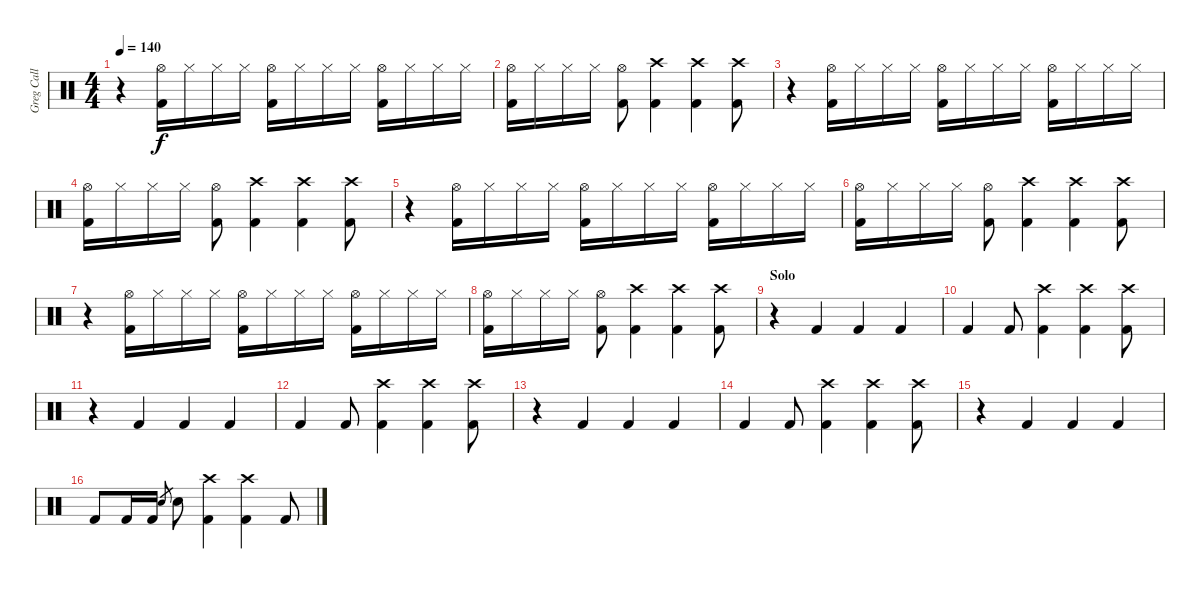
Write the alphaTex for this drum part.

\track ("Greg Call (Drums)" "Greg Call ") {instrument percussion}
\staff {score}
\articulation defaults
\ts (4 4)
\tempo 140
\clef neutral
\ks c
r.4{dy f} ("Hi-Hat (open)" "Kick (hit) 2").16 "Hi-Hat (closed)".16 "Hi-Hat (closed)".16 "Hi-Hat (closed)".16 ("Hi-Hat (open)" "Kick (hit) 2").16 "Hi-Hat (closed)".16 "Hi-Hat (closed)".16 "Hi-Hat (closed)".16 ("Hi-Hat (open)" "Kick (hit) 2").16 "Hi-Hat (closed)".16 "Hi-Hat (closed)".16 "Hi-Hat (closed)".16 |
("Hi-Hat (open)" "Kick (hit) 2").16 "Hi-Hat (closed)".16 "Hi-Hat (closed)".16 "Hi-Hat (closed)".16 ("Hi-Hat (open)" "Kick (hit) 2").8 ("Crash high (hit)" "Kick (hit) 2").4 ("Crash high (hit)" "Kick (hit) 2").4 ("Crash high (hit)" "Kick (hit) 2").8 |
r.4 ("Hi-Hat (open)" "Kick (hit) 2").16 "Hi-Hat (closed)".16 "Hi-Hat (closed)".16 "Hi-Hat (closed)".16 ("Hi-Hat (open)" "Kick (hit) 2").16 "Hi-Hat (closed)".16 "Hi-Hat (closed)".16 "Hi-Hat (closed)".16 ("Hi-Hat (open)" "Kick (hit) 2").16 "Hi-Hat (closed)".16 "Hi-Hat (closed)".16 "Hi-Hat (closed)".16 |
("Hi-Hat (open)" "Kick (hit) 2").16 "Hi-Hat (closed)".16 "Hi-Hat (closed)".16 "Hi-Hat (closed)".16 ("Hi-Hat (open)" "Kick (hit) 2").8 ("Crash high (hit)" "Kick (hit) 2").4 ("Crash high (hit)" "Kick (hit) 2").4 ("Crash high (hit)" "Kick (hit) 2").8 |
r.4 ("Hi-Hat (open)" "Kick (hit) 2").16 "Hi-Hat (closed)".16 "Hi-Hat (closed)".16 "Hi-Hat (closed)".16 ("Hi-Hat (open)" "Kick (hit) 2").16 "Hi-Hat (closed)".16 "Hi-Hat (closed)".16 "Hi-Hat (closed)".16 ("Hi-Hat (open)" "Kick (hit) 2").16 "Hi-Hat (closed)".16 "Hi-Hat (closed)".16 "Hi-Hat (closed)".16 |
("Hi-Hat (open)" "Kick (hit) 2").16 "Hi-Hat (closed)".16 "Hi-Hat (closed)".16 "Hi-Hat (closed)".16 ("Hi-Hat (open)" "Kick (hit) 2").8 ("Crash high (hit)" "Kick (hit) 2").4 ("Crash high (hit)" "Kick (hit) 2").4 ("Crash high (hit)" "Kick (hit) 2").8 |
r.4 ("Hi-Hat (open)" "Kick (hit) 2").16 "Hi-Hat (closed)".16 "Hi-Hat (closed)".16 "Hi-Hat (closed)".16 ("Hi-Hat (open)" "Kick (hit) 2").16 "Hi-Hat (closed)".16 "Hi-Hat (closed)".16 "Hi-Hat (closed)".16 ("Hi-Hat (open)" "Kick (hit) 2").16 "Hi-Hat (closed)".16 "Hi-Hat (closed)".16 "Hi-Hat (closed)".16 |
("Hi-Hat (open)" "Kick (hit) 2").16 "Hi-Hat (closed)".16 "Hi-Hat (closed)".16 "Hi-Hat (closed)".16 ("Hi-Hat (open)" "Kick (hit) 2").8 ("Crash high (hit)" "Kick (hit) 2").4 ("Crash high (hit)" "Kick (hit) 2").4 ("Crash high (hit)" "Kick (hit) 2").8 |
\section ("" "Solo")
r.4 "Kick (hit) 2".4 "Kick (hit) 2".4 "Kick (hit) 2".4 |
"Kick (hit) 2".4 "Kick (hit) 2".8 ("Crash high (hit)" "Kick (hit) 2").4 ("Crash high (hit)" "Kick (hit) 2").4 ("Crash high (hit)" "Kick (hit) 2").8 |
r.4 "Kick (hit) 2".4 "Kick (hit) 2".4 "Kick (hit) 2".4 |
"Kick (hit) 2".4 "Kick (hit) 2".8 ("Crash high (hit)" "Kick (hit) 2").4 ("Crash high (hit)" "Kick (hit) 2").4 ("Crash high (hit)" "Kick (hit) 2").8 |
r.4 "Kick (hit) 2".4 "Kick (hit) 2".4 "Kick (hit) 2".4 |
"Kick (hit) 2".4 "Kick (hit) 2".8 ("Crash high (hit)" "Kick (hit) 2").4 ("Crash high (hit)" "Kick (hit) 2").4 ("Crash high (hit)" "Kick (hit) 2").8 |
r.4 "Kick (hit) 2".4 "Kick (hit) 2".4 "Kick (hit) 2".4 |
"Kick (hit) 2".8 "Kick (hit) 2".16 "Kick (hit) 2".16 "Snare (hit) 2".8{gr} "Snare (hit) 2".8 ("Crash high (hit)" "Kick (hit) 2").4 ("Crash high (hit)" "Kick (hit) 2").4 "Kick (hit) 2".8
